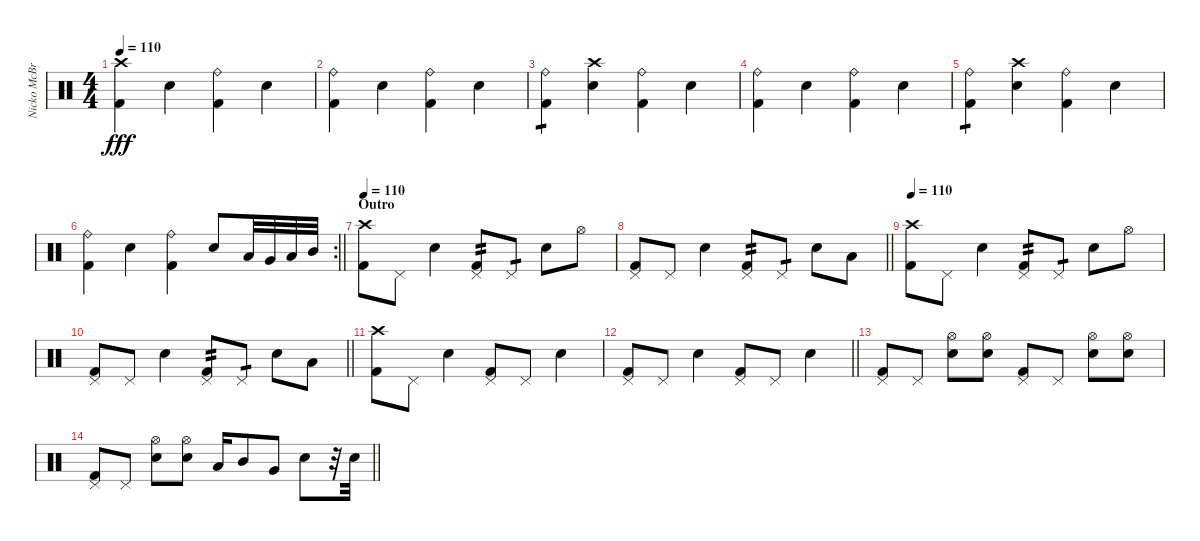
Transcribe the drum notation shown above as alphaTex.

\track ("Nicko McBrain" "Nicko McBr") {instrument percussion}
\staff {score}
\articulation defaults
\ts (4 4)
\tempo 110
\clef neutral
\ks c
("Crash high (hit)" "Kick (hit) 2").4{dy fff} "Electric Snare (hit)".4 ("Ride (bell)" "Kick (hit) 2").4 "Electric Snare (hit)".4 |
("Ride (bell)" "Kick (hit) 2").4 "Electric Snare (hit)".4 ("Ride (bell)" "Kick (hit) 2").4 "Electric Snare (hit)".4 |
("Ride (bell)" "Kick (hit) 2").4{tp 1} ("Electric Snare (hit)" "Crash high (hit)").4 ("Ride (bell)" "Kick (hit) 2").4 "Electric Snare (hit)".4 |
("Ride (bell)" "Kick (hit) 2").4 "Electric Snare (hit)".4 ("Ride (bell)" "Kick (hit) 2").4 "Electric Snare (hit)".4 |
("Ride (bell)" "Kick (hit) 2").4{tp 1} ("Electric Snare (hit)" "Crash high (hit)").4 ("Ride (bell)" "Kick (hit) 2").4 "Electric Snare (hit)".4 |
\rc 2
\barLineRight lightlight
("Ride (bell)" "Kick (hit) 2").4 "Electric Snare (hit)".4 ("Ride (bell)" "Kick (hit) 2").4 "Electric Snare (hit)".8 "Low Floor Tom (hit)".32 "Very Low Tom (hit)".32 "Low Tom (hit)".32 "Mid Tom (hit)".32 |
\section ("" "Outro")
\tempo 110
("Crash high (hit)" "Kick (hit) 2").8 "Pedal Hi-Hat (hit)".8 "Electric Snare (hit)".4 ("Pedal Hi-Hat (hit)" "Kick (hit) 2").8{tp 2} "Pedal Hi-Hat (hit)".8{tp 1} "Electric Snare (hit)".8 "Hi-Hat (open)".8 |
\barLineRight lightlight
("Pedal Hi-Hat (hit)" "Kick (hit) 2").8 "Pedal Hi-Hat (hit)".8 "Electric Snare (hit)".4 ("Pedal Hi-Hat (hit)" "Kick (hit) 2").8{tp 2} "Pedal Hi-Hat (hit)".8{tp 1} "Electric Snare (hit)".8 "Low Floor Tom (hit)".8 |
\tempo 110
("Crash high (hit)" "Kick (hit) 2").8 "Pedal Hi-Hat (hit)".8 "Electric Snare (hit)".4 ("Pedal Hi-Hat (hit)" "Kick (hit) 2").8{tp 2} "Pedal Hi-Hat (hit)".8{tp 1} "Electric Snare (hit)".8 "Hi-Hat (open)".8 |
\barLineRight lightlight
("Pedal Hi-Hat (hit)" "Kick (hit) 2").8 "Pedal Hi-Hat (hit)".8 "Electric Snare (hit)".4 ("Pedal Hi-Hat (hit)" "Kick (hit) 2").8{tp 2} "Pedal Hi-Hat (hit)".8{tp 1} "Electric Snare (hit)".8 "Low Floor Tom (hit)".8 |
("Crash high (hit)" "Kick (hit) 2").8 "Pedal Hi-Hat (hit)".8 "Electric Snare (hit)".4 ("Pedal Hi-Hat (hit)" "Kick (hit) 2").8 "Pedal Hi-Hat (hit)".8 "Electric Snare (hit)".4 |
\barLineRight lightlight
("Pedal Hi-Hat (hit)" "Kick (hit) 2").8 "Pedal Hi-Hat (hit)".8 "Electric Snare (hit)".4 ("Pedal Hi-Hat (hit)" "Kick (hit) 2").8 "Pedal Hi-Hat (hit)".8 "Electric Snare (hit)".4 |
("Pedal Hi-Hat (hit)" "Kick (hit) 2").8 "Pedal Hi-Hat (hit)".8 ("Electric Snare (hit)" "Hi-Hat (open)").8 ("Electric Snare (hit)" "Hi-Hat (open)").8 ("Pedal Hi-Hat (hit)" "Kick (hit) 2").8 "Pedal Hi-Hat (hit)".8 ("Electric Snare (hit)" "Hi-Hat (open)").8 ("Electric Snare (hit)" "Hi-Hat (open)").8 |
\barLineRight lightlight
("Pedal Hi-Hat (hit)" "Kick (hit) 2").8 "Pedal Hi-Hat (hit)".8 ("Electric Snare (hit)" "Hi-Hat (open)").8 ("Electric Snare (hit)" "Hi-Hat (open)").8 "Low Tom (hit)".16 "Mid Tom (hit)".8 "Very Low Tom (hit)".8 "Electric Snare (hit)".8 r.32 "Electric Snare (hit)".32
